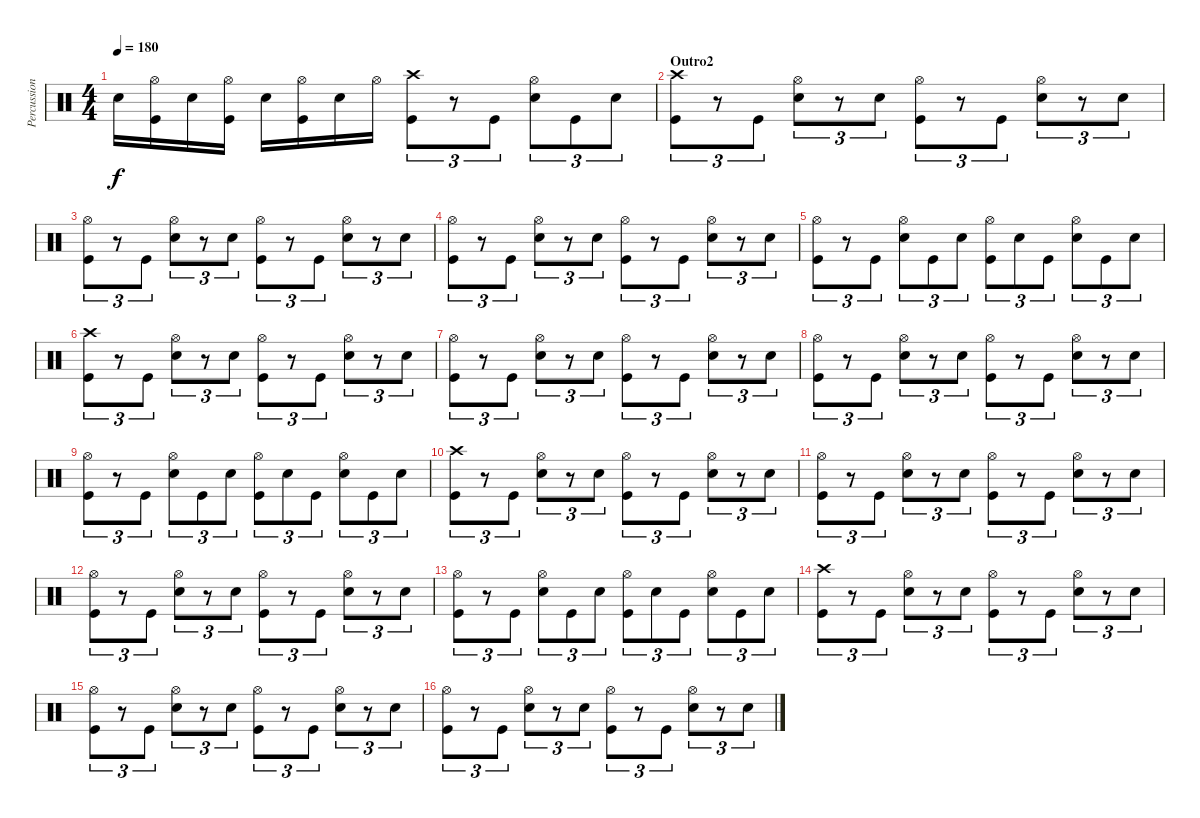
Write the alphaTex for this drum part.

\track ("Percussions" "Percussion") {instrument percussion}
\staff {score}
\articulation defaults
\ts (4 4)
\tempo 180
\clef neutral
\ks c "Electric Snare (hit)".16{dy f}
("Hi-Hat (open)" "Kick (hit)").16 "Electric Snare (hit)".16 ("Hi-Hat (open)" "Kick (hit)").16 "Electric Snare (hit)".16 ("Hi-Hat (open)" "Kick (hit)").16 "Electric Snare (hit)".16 "Hi-Hat (open)".16 ("Crash high (hit)" "Kick (hit)").8{tu (3 2)} r.8{tu (3 2)} "Kick (hit)".8{tu (3 2)} ("Hi-Hat (open)" "Electric Snare (hit)").8{tu (3 2)} "Kick (hit)".8{tu (3 2)} "Electric Snare (hit)".8{tu (3 2)} |
\section ("" "Outro2")
("Crash high (hit)" "Kick (hit)").8{tu (3 2)} r.8{tu (3 2)} "Kick (hit)".8{tu (3 2)} ("Hi-Hat (open)" "Electric Snare (hit)").8{tu (3 2)} r.8{tu (3 2)} "Electric Snare (hit)".8{tu (3 2)} ("Hi-Hat (open)" "Kick (hit)").8{tu (3 2)} r.8{tu (3 2)} "Kick (hit)".8{tu (3 2)} ("Hi-Hat (open)" "Electric Snare (hit)").8{tu (3 2)} r.8{tu (3 2)} "Electric Snare (hit)".8{tu (3 2)} |
("Hi-Hat (open)" "Kick (hit)").8{tu (3 2)} r.8{tu (3 2)} "Kick (hit)".8{tu (3 2)} ("Hi-Hat (open)" "Electric Snare (hit)").8{tu (3 2)} r.8{tu (3 2)} "Electric Snare (hit)".8{tu (3 2)} ("Hi-Hat (open)" "Kick (hit)").8{tu (3 2)} r.8{tu (3 2)} "Kick (hit)".8{tu (3 2)} ("Hi-Hat (open)" "Electric Snare (hit)").8{tu (3 2)} r.8{tu (3 2)} "Electric Snare (hit)".8{tu (3 2)} |
("Hi-Hat (open)" "Kick (hit)").8{tu (3 2)} r.8{tu (3 2)} "Kick (hit)".8{tu (3 2)} ("Hi-Hat (open)" "Electric Snare (hit)").8{tu (3 2)} r.8{tu (3 2)} "Electric Snare (hit)".8{tu (3 2)} ("Hi-Hat (open)" "Kick (hit)").8{tu (3 2)} r.8{tu (3 2)} "Kick (hit)".8{tu (3 2)} ("Hi-Hat (open)" "Electric Snare (hit)").8{tu (3 2)} r.8{tu (3 2)} "Electric Snare (hit)".8{tu (3 2)} |
("Hi-Hat (open)" "Kick (hit)").8{tu (3 2)} r.8{tu (3 2)} "Kick (hit)".8{tu (3 2)} ("Hi-Hat (open)" "Electric Snare (hit)").8{tu (3 2)} "Kick (hit)".8{tu (3 2)} "Electric Snare (hit)".8{tu (3 2)} ("Hi-Hat (open)" "Kick (hit)").8{tu (3 2)} "Electric Snare (hit)".8{tu (3 2)} "Kick (hit)".8{tu (3 2)} ("Hi-Hat (open)" "Electric Snare (hit)").8{tu (3 2)} "Kick (hit)".8{tu (3 2)} "Electric Snare (hit)".8{tu (3 2)} |
("Crash high (hit)" "Kick (hit)").8{tu (3 2)} r.8{tu (3 2)} "Kick (hit)".8{tu (3 2)} ("Hi-Hat (open)" "Electric Snare (hit)").8{tu (3 2)} r.8{tu (3 2)} "Electric Snare (hit)".8{tu (3 2)} ("Hi-Hat (open)" "Kick (hit)").8{tu (3 2)} r.8{tu (3 2)} "Kick (hit)".8{tu (3 2)} ("Hi-Hat (open)" "Electric Snare (hit)").8{tu (3 2)} r.8{tu (3 2)} "Electric Snare (hit)".8{tu (3 2)} |
("Hi-Hat (open)" "Kick (hit)").8{tu (3 2)} r.8{tu (3 2)} "Kick (hit)".8{tu (3 2)} ("Hi-Hat (open)" "Electric Snare (hit)").8{tu (3 2)} r.8{tu (3 2)} "Electric Snare (hit)".8{tu (3 2)} ("Hi-Hat (open)" "Kick (hit)").8{tu (3 2)} r.8{tu (3 2)} "Kick (hit)".8{tu (3 2)} ("Hi-Hat (open)" "Electric Snare (hit)").8{tu (3 2)} r.8{tu (3 2)} "Electric Snare (hit)".8{tu (3 2)} |
("Hi-Hat (open)" "Kick (hit)").8{tu (3 2)} r.8{tu (3 2)} "Kick (hit)".8{tu (3 2)} ("Hi-Hat (open)" "Electric Snare (hit)").8{tu (3 2)} r.8{tu (3 2)} "Electric Snare (hit)".8{tu (3 2)} ("Hi-Hat (open)" "Kick (hit)").8{tu (3 2)} r.8{tu (3 2)} "Kick (hit)".8{tu (3 2)} ("Hi-Hat (open)" "Electric Snare (hit)").8{tu (3 2)} r.8{tu (3 2)} "Electric Snare (hit)".8{tu (3 2)} |
("Hi-Hat (open)" "Kick (hit)").8{tu (3 2)} r.8{tu (3 2)} "Kick (hit)".8{tu (3 2)} ("Hi-Hat (open)" "Electric Snare (hit)").8{tu (3 2)} "Kick (hit)".8{tu (3 2)} "Electric Snare (hit)".8{tu (3 2)} ("Hi-Hat (open)" "Kick (hit)").8{tu (3 2)} "Electric Snare (hit)".8{tu (3 2)} "Kick (hit)".8{tu (3 2)} ("Hi-Hat (open)" "Electric Snare (hit)").8{tu (3 2)} "Kick (hit)".8{tu (3 2)} "Electric Snare (hit)".8{tu (3 2)} |
("Crash high (hit)" "Kick (hit)").8{tu (3 2)} r.8{tu (3 2)} "Kick (hit)".8{tu (3 2)} ("Hi-Hat (open)" "Electric Snare (hit)").8{tu (3 2)} r.8{tu (3 2)} "Electric Snare (hit)".8{tu (3 2)} ("Hi-Hat (open)" "Kick (hit)").8{tu (3 2)} r.8{tu (3 2)} "Kick (hit)".8{tu (3 2)} ("Hi-Hat (open)" "Electric Snare (hit)").8{tu (3 2)} r.8{tu (3 2)} "Electric Snare (hit)".8{tu (3 2)} |
("Hi-Hat (open)" "Kick (hit)").8{tu (3 2)} r.8{tu (3 2)} "Kick (hit)".8{tu (3 2)} ("Hi-Hat (open)" "Electric Snare (hit)").8{tu (3 2)} r.8{tu (3 2)} "Electric Snare (hit)".8{tu (3 2)} ("Hi-Hat (open)" "Kick (hit)").8{tu (3 2)} r.8{tu (3 2)} "Kick (hit)".8{tu (3 2)} ("Hi-Hat (open)" "Electric Snare (hit)").8{tu (3 2)} r.8{tu (3 2)} "Electric Snare (hit)".8{tu (3 2)} |
("Hi-Hat (open)" "Kick (hit)").8{tu (3 2)} r.8{tu (3 2)} "Kick (hit)".8{tu (3 2)} ("Hi-Hat (open)" "Electric Snare (hit)").8{tu (3 2)} r.8{tu (3 2)} "Electric Snare (hit)".8{tu (3 2)} ("Hi-Hat (open)" "Kick (hit)").8{tu (3 2)} r.8{tu (3 2)} "Kick (hit)".8{tu (3 2)} ("Hi-Hat (open)" "Electric Snare (hit)").8{tu (3 2)} r.8{tu (3 2)} "Electric Snare (hit)".8{tu (3 2)} |
("Hi-Hat (open)" "Kick (hit)").8{tu (3 2)} r.8{tu (3 2)} "Kick (hit)".8{tu (3 2)} ("Hi-Hat (open)" "Electric Snare (hit)").8{tu (3 2)} "Kick (hit)".8{tu (3 2)} "Electric Snare (hit)".8{tu (3 2)} ("Hi-Hat (open)" "Kick (hit)").8{tu (3 2)} "Electric Snare (hit)".8{tu (3 2)} "Kick (hit)".8{tu (3 2)} ("Hi-Hat (open)" "Electric Snare (hit)").8{tu (3 2)} "Kick (hit)".8{tu (3 2)} "Electric Snare (hit)".8{tu (3 2)} |
("Crash high (hit)" "Kick (hit)").8{tu (3 2)} r.8{tu (3 2)} "Kick (hit)".8{tu (3 2)} ("Hi-Hat (open)" "Electric Snare (hit)").8{tu (3 2)} r.8{tu (3 2)} "Electric Snare (hit)".8{tu (3 2)} ("Hi-Hat (open)" "Kick (hit)").8{tu (3 2)} r.8{tu (3 2)} "Kick (hit)".8{tu (3 2)} ("Hi-Hat (open)" "Electric Snare (hit)").8{tu (3 2)} r.8{tu (3 2)} "Electric Snare (hit)".8{tu (3 2)} |
("Hi-Hat (open)" "Kick (hit)").8{tu (3 2)} r.8{tu (3 2)} "Kick (hit)".8{tu (3 2)} ("Hi-Hat (open)" "Electric Snare (hit)").8{tu (3 2)} r.8{tu (3 2)} "Electric Snare (hit)".8{tu (3 2)} ("Hi-Hat (open)" "Kick (hit)").8{tu (3 2)} r.8{tu (3 2)} "Kick (hit)".8{tu (3 2)} ("Hi-Hat (open)" "Electric Snare (hit)").8{tu (3 2)} r.8{tu (3 2)} "Electric Snare (hit)".8{tu (3 2)} |
("Hi-Hat (open)" "Kick (hit)").8{tu (3 2)} r.8{tu (3 2)} "Kick (hit)".8{tu (3 2)} ("Hi-Hat (open)" "Electric Snare (hit)").8{tu (3 2)} r.8{tu (3 2)} "Electric Snare (hit)".8{tu (3 2)} ("Hi-Hat (open)" "Kick (hit)").8{tu (3 2)} r.8{tu (3 2)} "Kick (hit)".8{tu (3 2)} ("Hi-Hat (open)" "Electric Snare (hit)").8{tu (3 2)} r.8{tu (3 2)} "Electric Snare (hit)".8{tu (3 2)}
